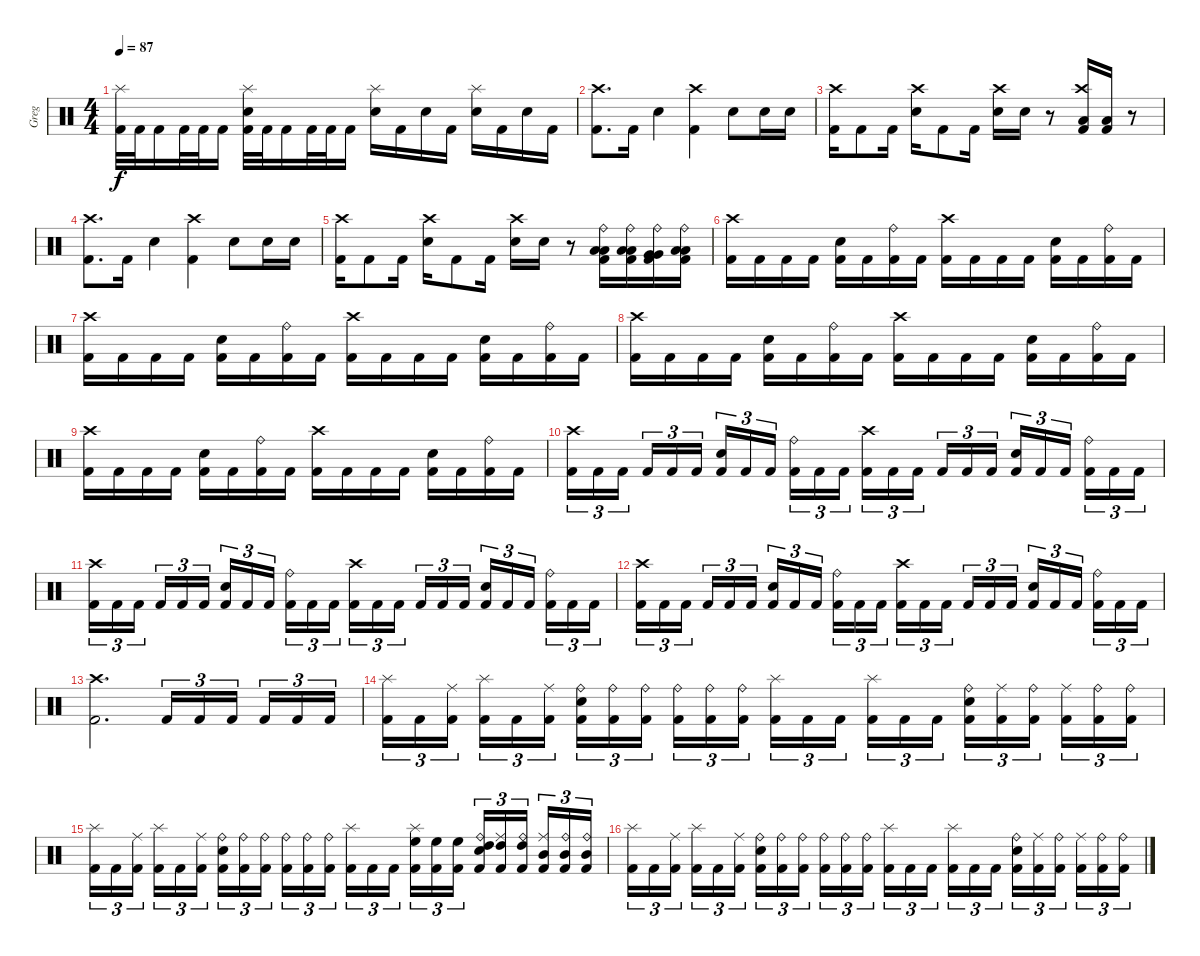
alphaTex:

\track ("Greg" "Greg") {instrument percussion}
\staff {score}
\articulation defaults
\ts (4 4)
\tempo 87
\clef neutral
\ks c
("Splash (hit)" "Kick (hit) 2").32{dy f} "Kick (hit) 2".32 "Kick (hit) 2".16 "Kick (hit) 2".32 "Kick (hit) 2".32 "Kick (hit) 2".16 ("Splash (hit)" "Snare (hit) 2" "Kick (hit) 2").32 "Kick (hit) 2".32 "Kick (hit) 2".16 "Kick (hit) 2".32 "Kick (hit) 2".32 "Kick (hit) 2".16 ("Splash (hit)" "Snare (hit) 2").16 "Kick (hit) 2".16 "Snare (hit) 2".16 "Kick (hit) 2".16 ("Splash (hit)" "Snare (hit) 2").16 "Kick (hit) 2".16 "Snare (hit) 2".16 "Kick (hit) 2".16 |
("Crash high (hit)" "Kick (hit) 2").8{d} "Kick (hit) 2".16 "Snare (hit) 2".4 ("Crash high (hit)" "Kick (hit) 2").4 "Snare (hit) 2".8 "Snare (hit) 2".16 "Snare (hit) 2".16 |
("Crash high (hit)" "Kick (hit) 2").16 "Kick (hit) 2".8 "Kick (hit) 2".16 ("Crash high (hit)" "Snare (hit) 2").16 "Kick (hit) 2".8 "Kick (hit) 2".16 ("Crash high (hit)" "Snare (hit) 2").16 "Snare (hit) 2".16 r.8 ("Crash high (hit)" "Low Floor Tom (hit)" "Kick (hit) 2").16 ("Low Floor Tom (hit)" "Kick (hit) 2").16 r.8 |
("Crash high (hit)" "Kick (hit) 2").8{d} "Kick (hit) 2".16 "Snare (hit) 2".4 ("Crash high (hit)" "Kick (hit) 2").4 "Snare (hit) 2".8 "Snare (hit) 2".16 "Snare (hit) 2".16 |
("Crash high (hit)" "Kick (hit) 2").16 "Kick (hit) 2".8 "Kick (hit) 2".16 ("Crash high (hit)" "Snare (hit) 2").16 "Kick (hit) 2".8 "Kick (hit) 2".16 ("Crash high (hit)" "Snare (hit) 2").16 "Snare (hit) 2".16 r.8 ("Ride (bell)" "Low Tom (hit)" "Low Tom (hit)" "Kick (hit) 2").16 ("Ride (bell)" "Low Floor Tom (hit)" "Low Floor Tom (hit)" "Kick (hit) 2").16 ("Ride (bell)" "Very Low Tom (hit)" "Very Low Tom (hit)" "Kick (hit) 2").16 ("Ride (bell)" "Low Floor Tom (hit)" "Low Floor Tom (hit)" "Kick (hit) 2").16 |
("Crash high (hit)" "Kick (hit) 2").16 "Kick (hit) 2".16 "Kick (hit) 2".16 "Kick (hit) 2".16 ("Snare (hit) 2" "Kick (hit) 2").16 "Kick (hit) 2".16 ("Ride (bell)" "Kick (hit) 2").16 "Kick (hit) 2".16 ("Crash high (hit)" "Kick (hit) 2").16 "Kick (hit) 2".16 "Kick (hit) 2".16 "Kick (hit) 2".16 ("Snare (hit) 2" "Kick (hit) 2").16 "Kick (hit) 2".16 ("Ride (bell)" "Kick (hit) 2").16 "Kick (hit) 2".16 |
("Crash high (hit)" "Kick (hit) 2").16 "Kick (hit) 2".16 "Kick (hit) 2".16 "Kick (hit) 2".16 ("Snare (hit) 2" "Kick (hit) 2").16 "Kick (hit) 2".16 ("Ride (bell)" "Kick (hit) 2").16 "Kick (hit) 2".16 ("Crash high (hit)" "Kick (hit) 2").16 "Kick (hit) 2".16 "Kick (hit) 2".16 "Kick (hit) 2".16 ("Snare (hit) 2" "Kick (hit) 2").16 "Kick (hit) 2".16 ("Ride (bell)" "Kick (hit) 2").16 "Kick (hit) 2".16 |
("Crash high (hit)" "Kick (hit) 2").16 "Kick (hit) 2".16 "Kick (hit) 2".16 "Kick (hit) 2".16 ("Snare (hit) 2" "Kick (hit) 2").16 "Kick (hit) 2".16 ("Ride (bell)" "Kick (hit) 2").16 "Kick (hit) 2".16 ("Crash high (hit)" "Kick (hit) 2").16 "Kick (hit) 2".16 "Kick (hit) 2".16 "Kick (hit) 2".16 ("Snare (hit) 2" "Kick (hit) 2").16 "Kick (hit) 2".16 ("Ride (bell)" "Kick (hit) 2").16 "Kick (hit) 2".16 |
("Crash high (hit)" "Kick (hit) 2").16 "Kick (hit) 2".16 "Kick (hit) 2".16 "Kick (hit) 2".16 ("Snare (hit) 2" "Kick (hit) 2").16 "Kick (hit) 2".16 ("Ride (bell)" "Kick (hit) 2").16 "Kick (hit) 2".16 ("Crash high (hit)" "Kick (hit) 2").16 "Kick (hit) 2".16 "Kick (hit) 2".16 "Kick (hit) 2".16 ("Snare (hit) 2" "Kick (hit) 2").16 "Kick (hit) 2".16 ("Ride (bell)" "Kick (hit) 2").16 "Kick (hit) 2".16 |
("Crash high (hit)" "Kick (hit) 2").16{tu (3 2)} "Kick (hit) 2".16{tu (3 2)} "Kick (hit) 2".16{tu (3 2) beam splitsecondary} "Kick (hit) 2".16{tu (3 2)} "Kick (hit) 2".16{tu (3 2)} "Kick (hit) 2".16{tu (3 2)} ("Snare (hit) 2" "Kick (hit) 2").16{tu (3 2)} "Kick (hit) 2".16{tu (3 2)} "Kick (hit) 2".16{tu (3 2) beam splitsecondary} ("Ride (bell)" "Kick (hit) 2").16{tu (3 2)} "Kick (hit) 2".16{tu (3 2)} "Kick (hit) 2".16{tu (3 2)} ("Crash high (hit)" "Kick (hit) 2").16{tu (3 2)} "Kick (hit) 2".16{tu (3 2)} "Kick (hit) 2".16{tu (3 2) beam splitsecondary} "Kick (hit) 2".16{tu (3 2)} "Kick (hit) 2".16{tu (3 2)} "Kick (hit) 2".16{tu (3 2)} ("Snare (hit) 2" "Kick (hit) 2").16{tu (3 2)} "Kick (hit) 2".16{tu (3 2)} "Kick (hit) 2".16{tu (3 2) beam splitsecondary} ("Ride (bell)" "Kick (hit) 2").16{tu (3 2)} "Kick (hit) 2".16{tu (3 2)} "Kick (hit) 2".16{tu (3 2)} |
("Crash high (hit)" "Kick (hit) 2").16{tu (3 2)} "Kick (hit) 2".16{tu (3 2)} "Kick (hit) 2".16{tu (3 2) beam splitsecondary} "Kick (hit) 2".16{tu (3 2)} "Kick (hit) 2".16{tu (3 2)} "Kick (hit) 2".16{tu (3 2)} ("Snare (hit) 2" "Kick (hit) 2").16{tu (3 2)} "Kick (hit) 2".16{tu (3 2)} "Kick (hit) 2".16{tu (3 2) beam splitsecondary} ("Ride (bell)" "Kick (hit) 2").16{tu (3 2)} "Kick (hit) 2".16{tu (3 2)} "Kick (hit) 2".16{tu (3 2)} ("Crash high (hit)" "Kick (hit) 2").16{tu (3 2)} "Kick (hit) 2".16{tu (3 2)} "Kick (hit) 2".16{tu (3 2) beam splitsecondary} "Kick (hit) 2".16{tu (3 2)} "Kick (hit) 2".16{tu (3 2)} "Kick (hit) 2".16{tu (3 2)} ("Snare (hit) 2" "Kick (hit) 2").16{tu (3 2)} "Kick (hit) 2".16{tu (3 2)} "Kick (hit) 2".16{tu (3 2) beam splitsecondary} ("Ride (bell)" "Kick (hit) 2").16{tu (3 2)} "Kick (hit) 2".16{tu (3 2)} "Kick (hit) 2".16{tu (3 2)} |
("Crash high (hit)" "Kick (hit) 2").16{tu (3 2)} "Kick (hit) 2".16{tu (3 2)} "Kick (hit) 2".16{tu (3 2) beam splitsecondary} "Kick (hit) 2".16{tu (3 2)} "Kick (hit) 2".16{tu (3 2)} "Kick (hit) 2".16{tu (3 2)} ("Snare (hit) 2" "Kick (hit) 2").16{tu (3 2)} "Kick (hit) 2".16{tu (3 2)} "Kick (hit) 2".16{tu (3 2) beam splitsecondary} ("Ride (bell)" "Kick (hit) 2").16{tu (3 2)} "Kick (hit) 2".16{tu (3 2)} "Kick (hit) 2".16{tu (3 2)} ("Crash high (hit)" "Kick (hit) 2").16{tu (3 2)} "Kick (hit) 2".16{tu (3 2)} "Kick (hit) 2".16{tu (3 2) beam splitsecondary} "Kick (hit) 2".16{tu (3 2)} "Kick (hit) 2".16{tu (3 2)} "Kick (hit) 2".16{tu (3 2)} ("Snare (hit) 2" "Kick (hit) 2").16{tu (3 2)} "Kick (hit) 2".16{tu (3 2)} "Kick (hit) 2".16{tu (3 2) beam splitsecondary} ("Ride (bell)" "Kick (hit) 2").16{tu (3 2)} "Kick (hit) 2".16{tu (3 2)} "Kick (hit) 2".16{tu (3 2)} |
("Crash high (hit)" "Kick (hit) 2").2{d} "Kick (hit) 2".16{tu (3 2)} "Kick (hit) 2".16{tu (3 2)} "Kick (hit) 2".16{tu (3 2) beam splitsecondary} "Kick (hit) 2".16{tu (3 2)} "Kick (hit) 2".16{tu (3 2)} "Kick (hit) 2".16{tu (3 2)} |
("Splash (hit)" "Kick (hit) 2").16{tu (3 2)} "Kick (hit) 2".16{tu (3 2)} ("Ride (middle)" "Kick (hit) 2").16{tu (3 2) beam splitsecondary} ("Splash (hit)" "Kick (hit) 2").16{tu (3 2)} "Kick (hit) 2".16{tu (3 2)} ("Ride (middle)" "Kick (hit) 2").16{tu (3 2)} ("Ride (bell)" "Snare (hit) 2" "Kick (hit) 2").16{tu (3 2)} ("Ride (bell)" "Kick (hit) 2").16{tu (3 2)} ("Ride (bell)" "Kick (hit) 2").16{tu (3 2) beam splitsecondary} ("Ride (bell)" "Kick (hit) 2").16{tu (3 2)} ("Ride (bell)" "Kick (hit) 2").16{tu (3 2)} ("Ride (bell)" "Kick (hit) 2").16{tu (3 2)} ("Splash (hit)" "Kick (hit) 2").16{tu (3 2)} "Kick (hit) 2".16{tu (3 2)} "Kick (hit) 2".16{tu (3 2) beam splitsecondary} ("Splash (hit)" "Kick (hit) 2").16{tu (3 2)} "Kick (hit) 2".16{tu (3 2)} "Kick (hit) 2".16{tu (3 2)} ("Ride (bell)" "Snare (hit) 2" "Kick (hit) 2").16{tu (3 2)} ("Ride (middle)" "Kick (hit) 2").16{tu (3 2)} ("Ride (bell)" "Kick (hit) 2").16{tu (3 2) beam splitsecondary} ("Ride (middle)" "Kick (hit) 2").16{tu (3 2)} ("Ride (bell)" "Kick (hit) 2").16{tu (3 2)} ("Ride (bell)" "Kick (hit) 2").16{tu (3 2)} |
("Splash (hit)" "Kick (hit) 2").16{tu (3 2)} "Kick (hit) 2".16{tu (3 2)} ("Ride (middle)" "Kick (hit) 2").16{tu (3 2) beam splitsecondary} ("Splash (hit)" "Kick (hit) 2").16{tu (3 2)} "Kick (hit) 2".16{tu (3 2)} ("Ride (middle)" "Kick (hit) 2").16{tu (3 2)} ("Ride (bell)" "Snare (hit) 2" "Kick (hit) 2").16{tu (3 2)} ("Ride (bell)" "Kick (hit) 2").16{tu (3 2)} ("Ride (bell)" "Kick (hit) 2").16{tu (3 2) beam splitsecondary} ("Ride (bell)" "Kick (hit) 2").16{tu (3 2)} ("Ride (bell)" "Kick (hit) 2").16{tu (3 2)} ("Ride (bell)" "Kick (hit) 2").16{tu (3 2)} ("Splash (hit)" "Kick (hit) 2").16{tu (3 2)} "Kick (hit) 2".16{tu (3 2)} "Kick (hit) 2".16{tu (3 2) beam splitsecondary} ("Splash (hit)" "High Floor Tom (hit)" "Kick (hit) 2").16{tu (3 2)} ("High Floor Tom (hit)" "Kick (hit) 2").16{tu (3 2)} ("High Floor Tom (hit)" "Kick (hit) 2").16{tu (3 2)} ("Ride (bell)" "High Tom (hit)" "Snare (hit) 2" "Kick (hit) 2").16{tu (3 2)} ("Ride (middle)" "High Tom (hit)" "Kick (hit) 2").16{tu (3 2)} ("Ride (bell)" "High Tom (hit)" "Kick (hit) 2").16{tu (3 2) beam splitsecondary} ("Ride (middle)" "Mid Tom (hit)" "Kick (hit) 2").16{tu (3 2)} ("Ride (bell)" "Mid Tom (hit)" "Kick (hit) 2").16{tu (3 2)} ("Ride (bell)" "Mid Tom (hit)" "Kick (hit) 2").16{tu (3 2)} |
("Splash (hit)" "Kick (hit) 2").16{tu (3 2)} "Kick (hit) 2".16{tu (3 2)} ("Ride (middle)" "Kick (hit) 2").16{tu (3 2) beam splitsecondary} ("Splash (hit)" "Kick (hit) 2").16{tu (3 2)} "Kick (hit) 2".16{tu (3 2)} ("Ride (middle)" "Kick (hit) 2").16{tu (3 2)} ("Ride (bell)" "Snare (hit) 2" "Kick (hit) 2").16{tu (3 2)} ("Ride (bell)" "Kick (hit) 2").16{tu (3 2)} ("Ride (bell)" "Kick (hit) 2").16{tu (3 2) beam splitsecondary} ("Ride (bell)" "Kick (hit) 2").16{tu (3 2)} ("Ride (bell)" "Kick (hit) 2").16{tu (3 2)} ("Ride (bell)" "Kick (hit) 2").16{tu (3 2)} ("Splash (hit)" "Kick (hit) 2").16{tu (3 2)} "Kick (hit) 2".16{tu (3 2)} "Kick (hit) 2".16{tu (3 2) beam splitsecondary} ("Splash (hit)" "Kick (hit) 2").16{tu (3 2)} "Kick (hit) 2".16{tu (3 2)} "Kick (hit) 2".16{tu (3 2)} ("Ride (bell)" "Snare (hit) 2" "Kick (hit) 2").16{tu (3 2)} ("Ride (middle)" "Kick (hit) 2").16{tu (3 2)} ("Ride (bell)" "Kick (hit) 2").16{tu (3 2) beam splitsecondary} ("Ride (middle)" "Kick (hit) 2").16{tu (3 2)} ("Ride (bell)" "Kick (hit) 2").16{tu (3 2)} ("Ride (bell)" "Kick (hit) 2").16{tu (3 2)}
